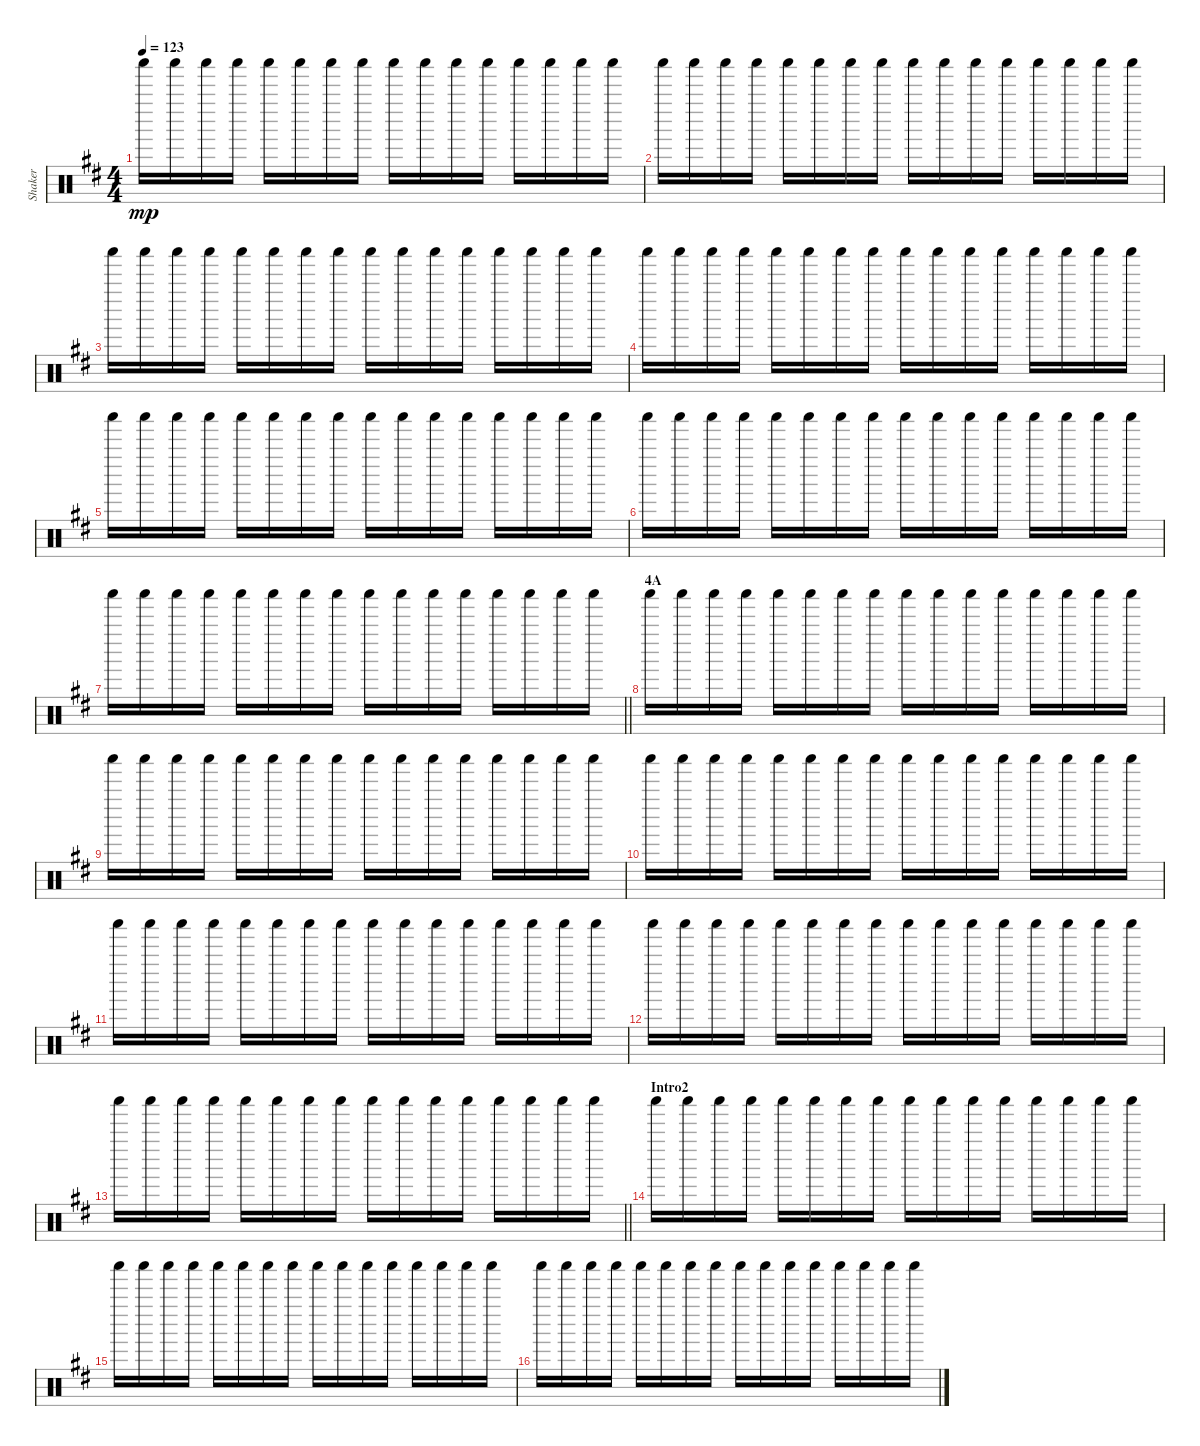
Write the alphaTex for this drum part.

\track ("Shaker" "Shaker") {instrument percussion}
\staff {score}
\articulation defaults
\ts (4 4)
\tempo 123
\clef neutral
\ks d "Shaker (hit)".16{dy mp} "Shaker (hit)".16 "Shaker (hit)".16 "Shaker (hit)".16 "Shaker (hit)".16 "Shaker (hit)".16 "Shaker (hit)".16 "Shaker (hit)".16 "Shaker (hit)".16 "Shaker (hit)".16 "Shaker (hit)".16 "Shaker (hit)".16 "Shaker (hit)".16 "Shaker (hit)".16 "Shaker (hit)".16 "Shaker (hit)".16
|
"Shaker (hit)".16 "Shaker (hit)".16 "Shaker (hit)".16 "Shaker (hit)".16 "Shaker (hit)".16 "Shaker (hit)".16 "Shaker (hit)".16 "Shaker (hit)".16 "Shaker (hit)".16 "Shaker (hit)".16 "Shaker (hit)".16 "Shaker (hit)".16 "Shaker (hit)".16 "Shaker (hit)".16 "Shaker (hit)".16 "Shaker (hit)".16 |
"Shaker (hit)".16 "Shaker (hit)".16 "Shaker (hit)".16 "Shaker (hit)".16 "Shaker (hit)".16 "Shaker (hit)".16 "Shaker (hit)".16 "Shaker (hit)".16 "Shaker (hit)".16 "Shaker (hit)".16 "Shaker (hit)".16 "Shaker (hit)".16 "Shaker (hit)".16 "Shaker (hit)".16 "Shaker (hit)".16 "Shaker (hit)".16 |
"Shaker (hit)".16 "Shaker (hit)".16 "Shaker (hit)".16 "Shaker (hit)".16 "Shaker (hit)".16 "Shaker (hit)".16 "Shaker (hit)".16 "Shaker (hit)".16 "Shaker (hit)".16 "Shaker (hit)".16 "Shaker (hit)".16 "Shaker (hit)".16 "Shaker (hit)".16 "Shaker (hit)".16 "Shaker (hit)".16 "Shaker (hit)".16 |
"Shaker (hit)".16 "Shaker (hit)".16 "Shaker (hit)".16 "Shaker (hit)".16 "Shaker (hit)".16 "Shaker (hit)".16 "Shaker (hit)".16 "Shaker (hit)".16 "Shaker (hit)".16 "Shaker (hit)".16 "Shaker (hit)".16 "Shaker (hit)".16 "Shaker (hit)".16 "Shaker (hit)".16 "Shaker (hit)".16 "Shaker (hit)".16 |
"Shaker (hit)".16 "Shaker (hit)".16 "Shaker (hit)".16 "Shaker (hit)".16 "Shaker (hit)".16 "Shaker (hit)".16 "Shaker (hit)".16 "Shaker (hit)".16 "Shaker (hit)".16 "Shaker (hit)".16 "Shaker (hit)".16 "Shaker (hit)".16 "Shaker (hit)".16 "Shaker (hit)".16 "Shaker (hit)".16 "Shaker (hit)".16 |
\barLineRight lightlight "Shaker (hit)".16 "Shaker (hit)".16 "Shaker (hit)".16 "Shaker (hit)".16 "Shaker (hit)".16 "Shaker (hit)".16 "Shaker (hit)".16 "Shaker (hit)".16 "Shaker (hit)".16 "Shaker (hit)".16 "Shaker (hit)".16 "Shaker (hit)".16 "Shaker (hit)".16 "Shaker (hit)".16 "Shaker (hit)".16 "Shaker (hit)".16
|
\section ("" "4A")
"Shaker (hit)".16 "Shaker (hit)".16 "Shaker (hit)".16 "Shaker (hit)".16 "Shaker (hit)".16 "Shaker (hit)".16 "Shaker (hit)".16 "Shaker (hit)".16 "Shaker (hit)".16 "Shaker (hit)".16 "Shaker (hit)".16 "Shaker (hit)".16 "Shaker (hit)".16 "Shaker (hit)".16 "Shaker (hit)".16 "Shaker (hit)".16 |
"Shaker (hit)".16 "Shaker (hit)".16 "Shaker (hit)".16 "Shaker (hit)".16 "Shaker (hit)".16 "Shaker (hit)".16 "Shaker (hit)".16 "Shaker (hit)".16 "Shaker (hit)".16 "Shaker (hit)".16 "Shaker (hit)".16 "Shaker (hit)".16 "Shaker (hit)".16 "Shaker (hit)".16 "Shaker (hit)".16 "Shaker (hit)".16 |
"Shaker (hit)".16 "Shaker (hit)".16 "Shaker (hit)".16 "Shaker (hit)".16 "Shaker (hit)".16 "Shaker (hit)".16 "Shaker (hit)".16 "Shaker (hit)".16 "Shaker (hit)".16 "Shaker (hit)".16 "Shaker (hit)".16 "Shaker (hit)".16 "Shaker (hit)".16 "Shaker (hit)".16 "Shaker (hit)".16 "Shaker (hit)".16 |
"Shaker (hit)".16 "Shaker (hit)".16 "Shaker (hit)".16 "Shaker (hit)".16 "Shaker (hit)".16 "Shaker (hit)".16 "Shaker (hit)".16 "Shaker (hit)".16 "Shaker (hit)".16 "Shaker (hit)".16 "Shaker (hit)".16 "Shaker (hit)".16 "Shaker (hit)".16 "Shaker (hit)".16 "Shaker (hit)".16 "Shaker (hit)".16 |
"Shaker (hit)".16 "Shaker (hit)".16 "Shaker (hit)".16 "Shaker (hit)".16 "Shaker (hit)".16 "Shaker (hit)".16 "Shaker (hit)".16 "Shaker (hit)".16 "Shaker (hit)".16 "Shaker (hit)".16 "Shaker (hit)".16 "Shaker (hit)".16 "Shaker (hit)".16 "Shaker (hit)".16 "Shaker (hit)".16 "Shaker (hit)".16 |
\barLineRight lightlight "Shaker (hit)".16 "Shaker (hit)".16 "Shaker (hit)".16 "Shaker (hit)".16 "Shaker (hit)".16 "Shaker (hit)".16 "Shaker (hit)".16 "Shaker (hit)".16 "Shaker (hit)".16 "Shaker (hit)".16 "Shaker (hit)".16 "Shaker (hit)".16 "Shaker (hit)".16 "Shaker (hit)".16 "Shaker (hit)".16 "Shaker (hit)".16
|
\section ("" "Intro2")
"Shaker (hit)".16 "Shaker (hit)".16 "Shaker (hit)".16 "Shaker (hit)".16 "Shaker (hit)".16 "Shaker (hit)".16 "Shaker (hit)".16 "Shaker (hit)".16 "Shaker (hit)".16 "Shaker (hit)".16 "Shaker (hit)".16 "Shaker (hit)".16 "Shaker (hit)".16 "Shaker (hit)".16 "Shaker (hit)".16 "Shaker (hit)".16 |
"Shaker (hit)".16 "Shaker (hit)".16 "Shaker (hit)".16 "Shaker (hit)".16 "Shaker (hit)".16 "Shaker (hit)".16 "Shaker (hit)".16 "Shaker (hit)".16 "Shaker (hit)".16 "Shaker (hit)".16 "Shaker (hit)".16 "Shaker (hit)".16 "Shaker (hit)".16 "Shaker (hit)".16 "Shaker (hit)".16 "Shaker (hit)".16 |
"Shaker (hit)".16 "Shaker (hit)".16 "Shaker (hit)".16 "Shaker (hit)".16 "Shaker (hit)".16 "Shaker (hit)".16 "Shaker (hit)".16 "Shaker (hit)".16 "Shaker (hit)".16 "Shaker (hit)".16 "Shaker (hit)".16 "Shaker (hit)".16 "Shaker (hit)".16 "Shaker (hit)".16 "Shaker (hit)".16 "Shaker (hit)".16
